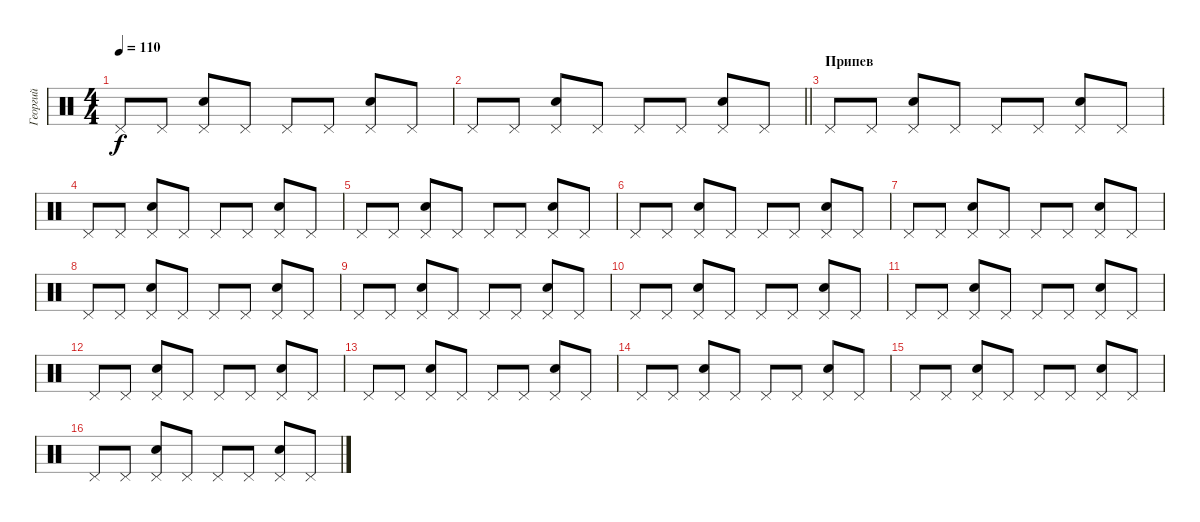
\track ("Георгий" "Георгий") {instrument percussion}
\staff {score}
\articulation defaults
\ts (4 4)
\tempo 110
\clef neutral
\ks c "Pedal Hi-Hat (hit)".8{dy f} "Pedal Hi-Hat (hit)".8
("Pedal Hi-Hat (hit)" "Snare (hit) 2").8 "Pedal Hi-Hat (hit)".8 "Pedal Hi-Hat (hit)".8 "Pedal Hi-Hat (hit)".8 ("Pedal Hi-Hat (hit)" "Snare (hit) 2").8 "Pedal Hi-Hat (hit)".8 |
\barLineRight lightlight "Pedal Hi-Hat (hit)".8 "Pedal Hi-Hat (hit)".8
("Pedal Hi-Hat (hit)" "Snare (hit) 2").8 "Pedal Hi-Hat (hit)".8 "Pedal Hi-Hat (hit)".8 "Pedal Hi-Hat (hit)".8 ("Pedal Hi-Hat (hit)" "Snare (hit) 2").8 "Pedal Hi-Hat (hit)".8 |
\section ("" "Припев")
"Pedal Hi-Hat (hit)".8 "Pedal Hi-Hat (hit)".8 ("Pedal Hi-Hat (hit)" "Snare (hit) 2").8 "Pedal Hi-Hat (hit)".8 "Pedal Hi-Hat (hit)".8 "Pedal Hi-Hat (hit)".8 ("Pedal Hi-Hat (hit)" "Snare (hit) 2").8 "Pedal Hi-Hat (hit)".8 |
"Pedal Hi-Hat (hit)".8 "Pedal Hi-Hat (hit)".8 ("Pedal Hi-Hat (hit)" "Snare (hit) 2").8 "Pedal Hi-Hat (hit)".8 "Pedal Hi-Hat (hit)".8 "Pedal Hi-Hat (hit)".8 ("Pedal Hi-Hat (hit)" "Snare (hit) 2").8 "Pedal Hi-Hat (hit)".8 |
"Pedal Hi-Hat (hit)".8 "Pedal Hi-Hat (hit)".8 ("Pedal Hi-Hat (hit)" "Snare (hit) 2").8 "Pedal Hi-Hat (hit)".8 "Pedal Hi-Hat (hit)".8 "Pedal Hi-Hat (hit)".8 ("Pedal Hi-Hat (hit)" "Snare (hit) 2").8 "Pedal Hi-Hat (hit)".8 |
"Pedal Hi-Hat (hit)".8 "Pedal Hi-Hat (hit)".8 ("Pedal Hi-Hat (hit)" "Snare (hit) 2").8 "Pedal Hi-Hat (hit)".8 "Pedal Hi-Hat (hit)".8 "Pedal Hi-Hat (hit)".8 ("Pedal Hi-Hat (hit)" "Snare (hit) 2").8 "Pedal Hi-Hat (hit)".8 |
"Pedal Hi-Hat (hit)".8 "Pedal Hi-Hat (hit)".8 ("Pedal Hi-Hat (hit)" "Snare (hit) 2").8 "Pedal Hi-Hat (hit)".8 "Pedal Hi-Hat (hit)".8 "Pedal Hi-Hat (hit)".8 ("Pedal Hi-Hat (hit)" "Snare (hit) 2").8 "Pedal Hi-Hat (hit)".8 |
"Pedal Hi-Hat (hit)".8 "Pedal Hi-Hat (hit)".8 ("Pedal Hi-Hat (hit)" "Snare (hit) 2").8 "Pedal Hi-Hat (hit)".8 "Pedal Hi-Hat (hit)".8 "Pedal Hi-Hat (hit)".8 ("Pedal Hi-Hat (hit)" "Snare (hit) 2").8 "Pedal Hi-Hat (hit)".8 |
"Pedal Hi-Hat (hit)".8 "Pedal Hi-Hat (hit)".8 ("Pedal Hi-Hat (hit)" "Snare (hit) 2").8 "Pedal Hi-Hat (hit)".8 "Pedal Hi-Hat (hit)".8 "Pedal Hi-Hat (hit)".8 ("Pedal Hi-Hat (hit)" "Snare (hit) 2").8 "Pedal Hi-Hat (hit)".8 |
"Pedal Hi-Hat (hit)".8 "Pedal Hi-Hat (hit)".8 ("Pedal Hi-Hat (hit)" "Snare (hit) 2").8 "Pedal Hi-Hat (hit)".8 "Pedal Hi-Hat (hit)".8 "Pedal Hi-Hat (hit)".8 ("Pedal Hi-Hat (hit)" "Snare (hit) 2").8 "Pedal Hi-Hat (hit)".8 |
"Pedal Hi-Hat (hit)".8 "Pedal Hi-Hat (hit)".8 ("Pedal Hi-Hat (hit)" "Snare (hit) 2").8 "Pedal Hi-Hat (hit)".8 "Pedal Hi-Hat (hit)".8 "Pedal Hi-Hat (hit)".8 ("Pedal Hi-Hat (hit)" "Snare (hit) 2").8 "Pedal Hi-Hat (hit)".8 |
"Pedal Hi-Hat (hit)".8 "Pedal Hi-Hat (hit)".8 ("Pedal Hi-Hat (hit)" "Snare (hit) 2").8 "Pedal Hi-Hat (hit)".8 "Pedal Hi-Hat (hit)".8 "Pedal Hi-Hat (hit)".8 ("Pedal Hi-Hat (hit)" "Snare (hit) 2").8 "Pedal Hi-Hat (hit)".8 |
"Pedal Hi-Hat (hit)".8 "Pedal Hi-Hat (hit)".8 ("Pedal Hi-Hat (hit)" "Snare (hit) 2").8 "Pedal Hi-Hat (hit)".8 "Pedal Hi-Hat (hit)".8 "Pedal Hi-Hat (hit)".8 ("Pedal Hi-Hat (hit)" "Snare (hit) 2").8 "Pedal Hi-Hat (hit)".8 |
"Pedal Hi-Hat (hit)".8 "Pedal Hi-Hat (hit)".8 ("Pedal Hi-Hat (hit)" "Snare (hit) 2").8 "Pedal Hi-Hat (hit)".8 "Pedal Hi-Hat (hit)".8 "Pedal Hi-Hat (hit)".8 ("Pedal Hi-Hat (hit)" "Snare (hit) 2").8 "Pedal Hi-Hat (hit)".8 |
"Pedal Hi-Hat (hit)".8 "Pedal Hi-Hat (hit)".8 ("Pedal Hi-Hat (hit)" "Snare (hit) 2").8 "Pedal Hi-Hat (hit)".8 "Pedal Hi-Hat (hit)".8 "Pedal Hi-Hat (hit)".8 ("Pedal Hi-Hat (hit)" "Snare (hit) 2").8 "Pedal Hi-Hat (hit)".8 |
"Pedal Hi-Hat (hit)".8 "Pedal Hi-Hat (hit)".8 ("Pedal Hi-Hat (hit)" "Snare (hit) 2").8 "Pedal Hi-Hat (hit)".8 "Pedal Hi-Hat (hit)".8 "Pedal Hi-Hat (hit)".8 ("Pedal Hi-Hat (hit)" "Snare (hit) 2").8 "Pedal Hi-Hat (hit)".8
